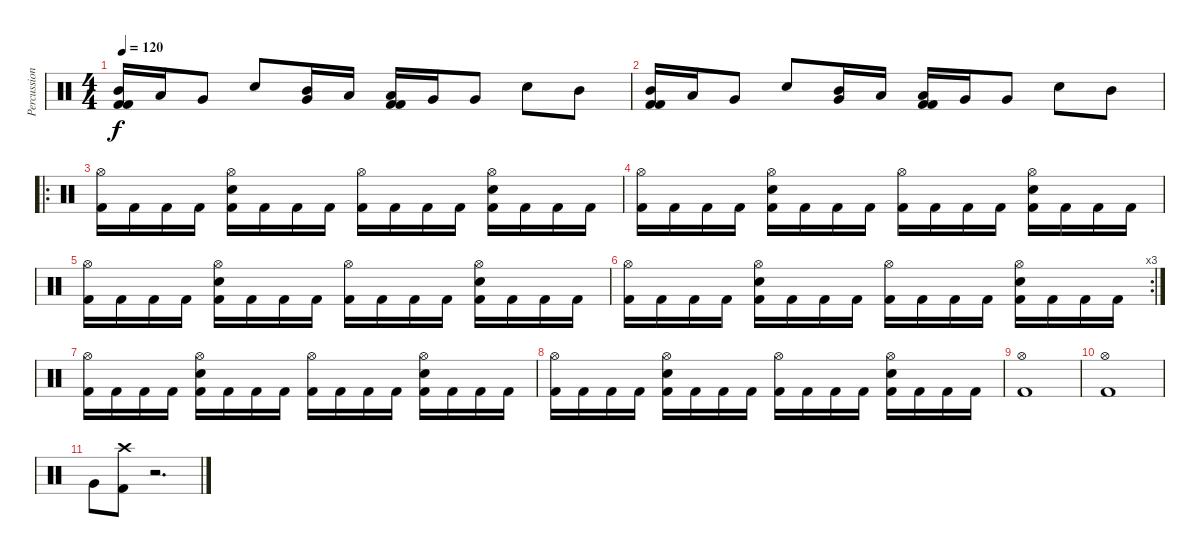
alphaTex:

\track ("Percussions" "Percussion") {instrument percussion}
\staff {score}
\articulation defaults
\ts (4 4)
\tempo 120
\clef neutral
\ks c
("Kick (hit) 2" "Mid Tom (hit)" "Kick (hit) 2").16{dy f} "Low Tom (hit)".16 "Very Low Tom (hit)".8 "Snare (hit) 2".8 ("Mid Tom (hit)" "Very Low Tom (hit)").16 "Low Tom (hit)".16 ("Kick (hit) 2" "Low Tom (hit)" "Kick (hit) 2").16 "Very Low Tom (hit)".16 "Very Low Tom (hit)".8 "Snare (hit) 2".8 "Mid Tom (hit)".8 |
("Kick (hit) 2" "Mid Tom (hit)" "Kick (hit) 2").16 "Low Tom (hit)".16 "Very Low Tom (hit)".8 "Snare (hit) 2".8 ("Mid Tom (hit)" "Very Low Tom (hit)").16 "Low Tom (hit)".16 ("Kick (hit) 2" "Low Tom (hit)" "Kick (hit) 2").16 "Very Low Tom (hit)".16 "Very Low Tom (hit)".8 "Snare (hit) 2".8 "Mid Tom (hit)".8 |
\ro
("Hi-Hat (open)" "Kick (hit) 2").16 "Kick (hit) 2".16 "Kick (hit) 2".16 "Kick (hit) 2".16 ("Hi-Hat (open)" "Snare (hit) 2" "Kick (hit) 2").16 "Kick (hit) 2".16 "Kick (hit) 2".16 "Kick (hit) 2".16 ("Hi-Hat (open)" "Kick (hit) 2").16 "Kick (hit) 2".16 "Kick (hit) 2".16 "Kick (hit) 2".16 ("Hi-Hat (open)" "Snare (hit) 2" "Kick (hit) 2").16 "Kick (hit) 2".16 "Kick (hit) 2".16 "Kick (hit) 2".16 |
("Hi-Hat (open)" "Kick (hit) 2").16 "Kick (hit) 2".16 "Kick (hit) 2".16 "Kick (hit) 2".16 ("Hi-Hat (open)" "Snare (hit) 2" "Kick (hit) 2").16 "Kick (hit) 2".16 "Kick (hit) 2".16 "Kick (hit) 2".16 ("Hi-Hat (open)" "Kick (hit) 2").16 "Kick (hit) 2".16 "Kick (hit) 2".16 "Kick (hit) 2".16 ("Hi-Hat (open)" "Snare (hit) 2" "Kick (hit) 2").16 "Kick (hit) 2".16 "Kick (hit) 2".16 "Kick (hit) 2".16 |
("Hi-Hat (open)" "Kick (hit) 2").16 "Kick (hit) 2".16 "Kick (hit) 2".16 "Kick (hit) 2".16 ("Hi-Hat (open)" "Snare (hit) 2" "Kick (hit) 2").16 "Kick (hit) 2".16 "Kick (hit) 2".16 "Kick (hit) 2".16 ("Hi-Hat (open)" "Kick (hit) 2").16 "Kick (hit) 2".16 "Kick (hit) 2".16 "Kick (hit) 2".16 ("Hi-Hat (open)" "Snare (hit) 2" "Kick (hit) 2").16 "Kick (hit) 2".16 "Kick (hit) 2".16 "Kick (hit) 2".16 |
\rc 3
("Hi-Hat (open)" "Kick (hit) 2").16 "Kick (hit) 2".16 "Kick (hit) 2".16 "Kick (hit) 2".16 ("Hi-Hat (open)" "Snare (hit) 2" "Kick (hit) 2").16 "Kick (hit) 2".16 "Kick (hit) 2".16 "Kick (hit) 2".16 ("Hi-Hat (open)" "Kick (hit) 2").16 "Kick (hit) 2".16 "Kick (hit) 2".16 "Kick (hit) 2".16 ("Hi-Hat (open)" "Snare (hit) 2" "Kick (hit) 2").16 "Kick (hit) 2".16 "Kick (hit) 2".16 "Kick (hit) 2".16 |
("Hi-Hat (open)" "Kick (hit) 2").16 "Kick (hit) 2".16 "Kick (hit) 2".16 "Kick (hit) 2".16 ("Hi-Hat (open)" "Snare (hit) 2" "Kick (hit) 2").16 "Kick (hit) 2".16 "Kick (hit) 2".16 "Kick (hit) 2".16 ("Hi-Hat (open)" "Kick (hit) 2").16 "Kick (hit) 2".16 "Kick (hit) 2".16 "Kick (hit) 2".16 ("Hi-Hat (open)" "Snare (hit) 2" "Kick (hit) 2").16 "Kick (hit) 2".16 "Kick (hit) 2".16 "Kick (hit) 2".16 |
("Hi-Hat (open)" "Kick (hit) 2").16 "Kick (hit) 2".16 "Kick (hit) 2".16 "Kick (hit) 2".16 ("Hi-Hat (open)" "Snare (hit) 2" "Kick (hit) 2").16 "Kick (hit) 2".16 "Kick (hit) 2".16 "Kick (hit) 2".16 ("Hi-Hat (open)" "Kick (hit) 2").16 "Kick (hit) 2".16 "Kick (hit) 2".16 "Kick (hit) 2".16 ("Hi-Hat (open)" "Snare (hit) 2" "Kick (hit) 2").16 "Kick (hit) 2".16 "Kick (hit) 2".16 "Kick (hit) 2".16 |
("Hi-Hat (open)" "Kick (hit) 2").1 |
("Hi-Hat (open)" "Kick (hit) 2").1 |
"Very Low Tom (hit)".8 ("Crash high (hit)" "Kick (hit) 2").8 r.2{d}
